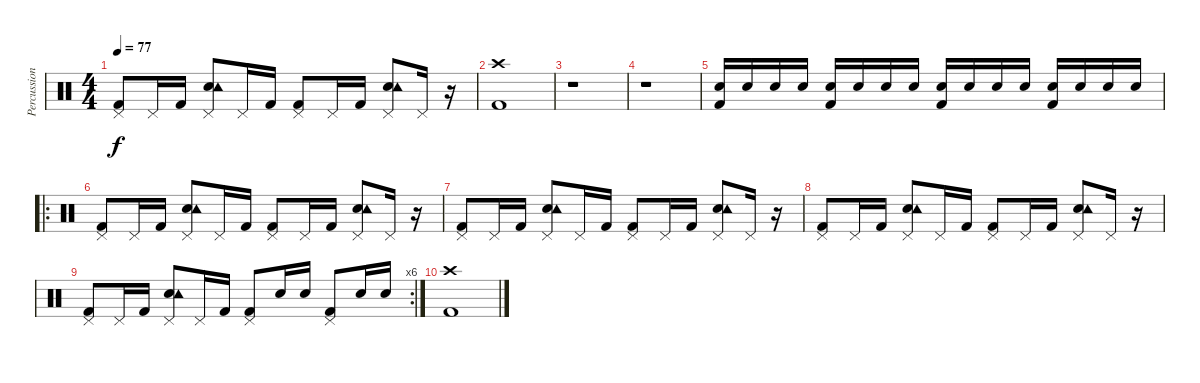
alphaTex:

\track ("Percussions" "Percussion") {instrument percussion}
\staff {score}
\articulation defaults
\ts (4 4)
\tempo 77
\clef neutral
\ks c
("Kick (hit) 2" "Pedal Hi-Hat (hit)").8{dy f} "Pedal Hi-Hat (hit)".16 "Kick (hit) 2".16 ("Snare (hit) 2" "Tambourine (hit)" "Pedal Hi-Hat (hit)").8 "Pedal Hi-Hat (hit)".16 "Kick (hit) 2".16 ("Kick (hit) 2" "Pedal Hi-Hat (hit)").8 "Pedal Hi-Hat (hit)".16 "Kick (hit) 2".16 ("Snare (hit) 2" "Tambourine (hit)" "Pedal Hi-Hat (hit)").8 "Pedal Hi-Hat (hit)".16 r.16 |
("Kick (hit) 2" "Crash high (hit)").1 |
r.1 |
r.1 |
("Snare (hit) 2" "Kick (hit) 2").16 "Snare (hit) 2".16 "Snare (hit) 2".16 "Snare (hit) 2".16 ("Snare (hit) 2" "Kick (hit) 2").16 "Snare (hit) 2".16 "Snare (hit) 2".16 "Snare (hit) 2".16 ("Snare (hit) 2" "Kick (hit) 2").16 "Snare (hit) 2".16 "Snare (hit) 2".16 "Snare (hit) 2".16 ("Snare (hit) 2" "Kick (hit) 2").16 "Snare (hit) 2".16 "Snare (hit) 2".16 "Snare (hit) 2".16 |
\ro
("Kick (hit) 2" "Pedal Hi-Hat (hit)").8 "Pedal Hi-Hat (hit)".16 "Kick (hit) 2".16 ("Snare (hit) 2" "Tambourine (hit)" "Pedal Hi-Hat (hit)").8 "Pedal Hi-Hat (hit)".16 "Kick (hit) 2".16 ("Kick (hit) 2" "Pedal Hi-Hat (hit)").8 "Pedal Hi-Hat (hit)".16 "Kick (hit) 2".16 ("Snare (hit) 2" "Tambourine (hit)" "Pedal Hi-Hat (hit)").8 "Pedal Hi-Hat (hit)".16 r.16 |
("Kick (hit) 2" "Pedal Hi-Hat (hit)").8 "Pedal Hi-Hat (hit)".16 "Kick (hit) 2".16 ("Snare (hit) 2" "Tambourine (hit)" "Pedal Hi-Hat (hit)").8 "Pedal Hi-Hat (hit)".16 "Kick (hit) 2".16 ("Kick (hit) 2" "Pedal Hi-Hat (hit)").8 "Pedal Hi-Hat (hit)".16 "Kick (hit) 2".16 ("Snare (hit) 2" "Tambourine (hit)" "Pedal Hi-Hat (hit)").8 "Pedal Hi-Hat (hit)".16 r.16 |
("Kick (hit) 2" "Pedal Hi-Hat (hit)").8 "Pedal Hi-Hat (hit)".16 "Kick (hit) 2".16 ("Snare (hit) 2" "Tambourine (hit)" "Pedal Hi-Hat (hit)").8 "Pedal Hi-Hat (hit)".16 "Kick (hit) 2".16 ("Kick (hit) 2" "Pedal Hi-Hat (hit)").8 "Pedal Hi-Hat (hit)".16 "Kick (hit) 2".16 ("Snare (hit) 2" "Tambourine (hit)" "Pedal Hi-Hat (hit)").8 "Pedal Hi-Hat (hit)".16 r.16 |
\rc 6
("Kick (hit) 2" "Pedal Hi-Hat (hit)").8 "Pedal Hi-Hat (hit)".16 "Kick (hit) 2".16 ("Snare (hit) 2" "Tambourine (hit)" "Pedal Hi-Hat (hit)").8 "Pedal Hi-Hat (hit)".16 "Kick (hit) 2".16 ("Kick (hit) 2" "Pedal Hi-Hat (hit)").8 "Snare (hit) 2".16 "Snare (hit) 2".16 ("Kick (hit) 2" "Pedal Hi-Hat (hit)").8 "Snare (hit) 2".16 "Snare (hit) 2".16 |
("Crash high (hit)" "Kick (hit) 2").1
